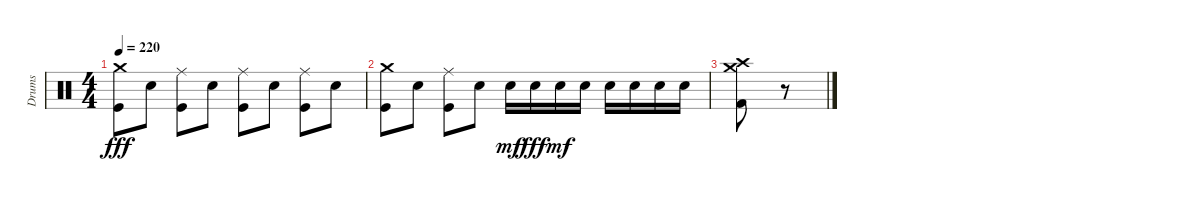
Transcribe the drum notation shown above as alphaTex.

\track ("Drums" "Drums") {instrument percussion}
\staff {score}
\articulation defaults
\ts (4 4)
\tempo 220
\clef neutral
\ks c
("Crash medium (hit)" "Kick (hit)").8{dy fff} "Electric Snare (hit)".8 ("Ride (middle)" "Kick (hit)").8 "Electric Snare (hit)".8 ("Ride (middle)" "Kick (hit)").8 "Electric Snare (hit)".8 ("Ride (middle)" "Kick (hit)").8 "Electric Snare (hit)".8 |
("Crash medium (hit)" "Kick (hit)").8 "Electric Snare (hit)".8 ("Ride (middle)" "Kick (hit)").8 "Electric Snare (hit)".8 "Electric Snare (hit)".16{dy mf} "Electric Snare (hit)".16{dy fff} "Electric Snare (hit)".16{dy mf} "Electric Snare (hit)".16 "Electric Snare (hit)".16 "Electric Snare (hit)".16 "Electric Snare (hit)".16 "Electric Snare (hit)".16 |
("Crash medium (hit)" "Crash high (hit)" "Kick (hit) 2").8 r.8
